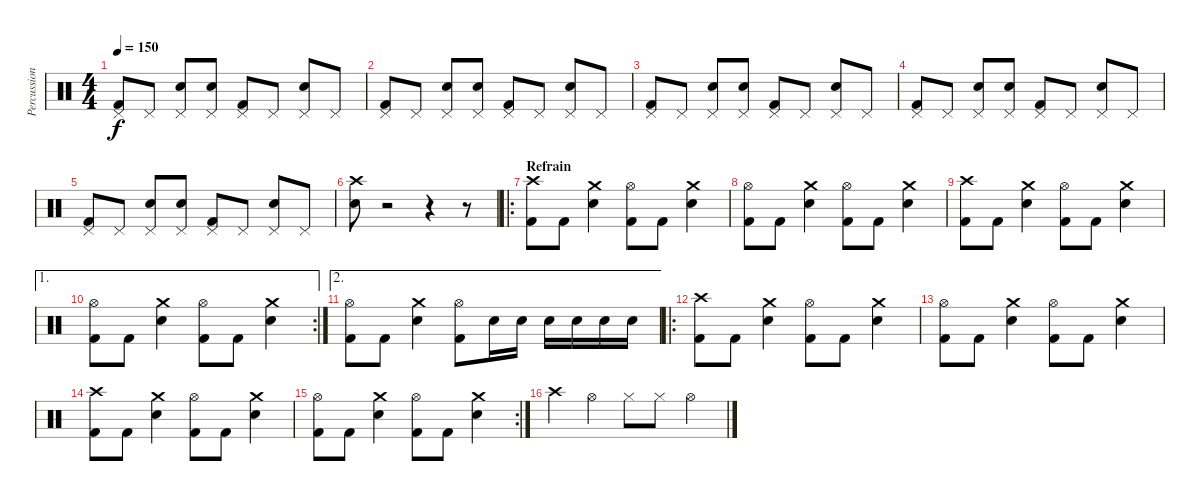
\track ("Percussions" "Percussion") {instrument percussion}
\staff {score}
\articulation defaults
\ts (4 4)
\tempo 150
\clef neutral
\ks c
("Pedal Hi-Hat (hit)" "Kick (hit) 2").8{dy f} "Pedal Hi-Hat (hit)".8 ("Pedal Hi-Hat (hit)" "Electric Snare (hit)").8 ("Pedal Hi-Hat (hit)" "Electric Snare (hit)").8 ("Pedal Hi-Hat (hit)" "Kick (hit) 2").8 "Pedal Hi-Hat (hit)".8 ("Pedal Hi-Hat (hit)" "Electric Snare (hit)").8 "Pedal Hi-Hat (hit)".8 |
("Pedal Hi-Hat (hit)" "Kick (hit) 2").8 "Pedal Hi-Hat (hit)".8 ("Pedal Hi-Hat (hit)" "Electric Snare (hit)").8 ("Pedal Hi-Hat (hit)" "Electric Snare (hit)").8 ("Pedal Hi-Hat (hit)" "Kick (hit) 2").8 "Pedal Hi-Hat (hit)".8 ("Pedal Hi-Hat (hit)" "Electric Snare (hit)").8 "Pedal Hi-Hat (hit)".8 |
("Pedal Hi-Hat (hit)" "Kick (hit) 2").8 "Pedal Hi-Hat (hit)".8 ("Pedal Hi-Hat (hit)" "Electric Snare (hit)").8 ("Pedal Hi-Hat (hit)" "Electric Snare (hit)").8 ("Pedal Hi-Hat (hit)" "Kick (hit) 2").8 "Pedal Hi-Hat (hit)".8 ("Pedal Hi-Hat (hit)" "Electric Snare (hit)").8 "Pedal Hi-Hat (hit)".8 |
("Pedal Hi-Hat (hit)" "Kick (hit) 2").8 "Pedal Hi-Hat (hit)".8 ("Pedal Hi-Hat (hit)" "Electric Snare (hit)").8 ("Pedal Hi-Hat (hit)" "Electric Snare (hit)").8 ("Pedal Hi-Hat (hit)" "Kick (hit) 2").8 "Pedal Hi-Hat (hit)".8 ("Pedal Hi-Hat (hit)" "Electric Snare (hit)").8 "Pedal Hi-Hat (hit)".8 |
("Pedal Hi-Hat (hit)" "Kick (hit) 2").8 "Pedal Hi-Hat (hit)".8 ("Pedal Hi-Hat (hit)" "Electric Snare (hit)").8 ("Pedal Hi-Hat (hit)" "Electric Snare (hit)").8 ("Pedal Hi-Hat (hit)" "Kick (hit) 2").8 "Pedal Hi-Hat (hit)".8 ("Pedal Hi-Hat (hit)" "Electric Snare (hit)").8 "Pedal Hi-Hat (hit)".8 |
("Crash high (hit)" "Electric Snare (hit)").8 r.2 r.4 r.8 |
\ro
\section ("" "Refrain")
("Crash high (hit)" "Kick (hit) 2").8 "Kick (hit) 2".8 ("Crash medium (hit)" "Electric Snare (hit)").4 ("Hi-Hat (open)" "Kick (hit) 2").8 "Kick (hit) 2".8 ("Crash medium (hit)" "Electric Snare (hit)").4 |
("Hi-Hat (open)" "Kick (hit) 2").8 "Kick (hit) 2".8 ("Crash medium (hit)" "Electric Snare (hit)").4 ("Hi-Hat (open)" "Kick (hit) 2").8 "Kick (hit) 2".8 ("Crash medium (hit)" "Electric Snare (hit)").4 |
("Crash high (hit)" "Kick (hit) 2").8 "Kick (hit) 2".8 ("Crash medium (hit)" "Electric Snare (hit)").4 ("Hi-Hat (open)" "Kick (hit) 2").8 "Kick (hit) 2".8 ("Crash medium (hit)" "Electric Snare (hit)").4 |
\ae 1
\rc 2
("Hi-Hat (open)" "Kick (hit) 2").8 "Kick (hit) 2".8 ("Crash medium (hit)" "Electric Snare (hit)").4 ("Hi-Hat (open)" "Kick (hit) 2").8 "Kick (hit) 2".8 ("Crash medium (hit)" "Electric Snare (hit)").4 |
\ae 2
("Hi-Hat (open)" "Kick (hit) 2").8 "Kick (hit) 2".8 ("Crash medium (hit)" "Electric Snare (hit)").4 ("Hi-Hat (open)" "Kick (hit) 2").8 "Electric Snare (hit)".16 "Electric Snare (hit)".16 "Electric Snare (hit)".16 "Electric Snare (hit)".16 "Electric Snare (hit)".16 "Electric Snare (hit)".16 |
\ro
("Crash high (hit)" "Kick (hit) 2").8 "Kick (hit) 2".8 ("Crash medium (hit)" "Electric Snare (hit)").4 ("Hi-Hat (open)" "Kick (hit) 2").8 "Kick (hit) 2".8 ("Crash medium (hit)" "Electric Snare (hit)").4 |
("Hi-Hat (open)" "Kick (hit) 2").8 "Kick (hit) 2".8 ("Crash medium (hit)" "Electric Snare (hit)").4 ("Hi-Hat (open)" "Kick (hit) 2").8 "Kick (hit) 2".8 ("Crash medium (hit)" "Electric Snare (hit)").4 |
("Crash high (hit)" "Kick (hit) 2").8 "Kick (hit) 2".8 ("Crash medium (hit)" "Electric Snare (hit)").4 ("Hi-Hat (open)" "Kick (hit) 2").8 "Kick (hit) 2".8 ("Crash medium (hit)" "Electric Snare (hit)").4 |
\rc 2
("Hi-Hat (open)" "Kick (hit) 2").8 "Kick (hit) 2".8 ("Crash medium (hit)" "Electric Snare (hit)").4 ("Hi-Hat (open)" "Kick (hit) 2").8 "Kick (hit) 2".8 ("Crash medium (hit)" "Electric Snare (hit)").4 |
"Crash high (hit)".4 "Hi-Hat (open)".4 "Hi-Hat (closed)".8 "Hi-Hat (closed)".8 "Hi-Hat (open)".4
